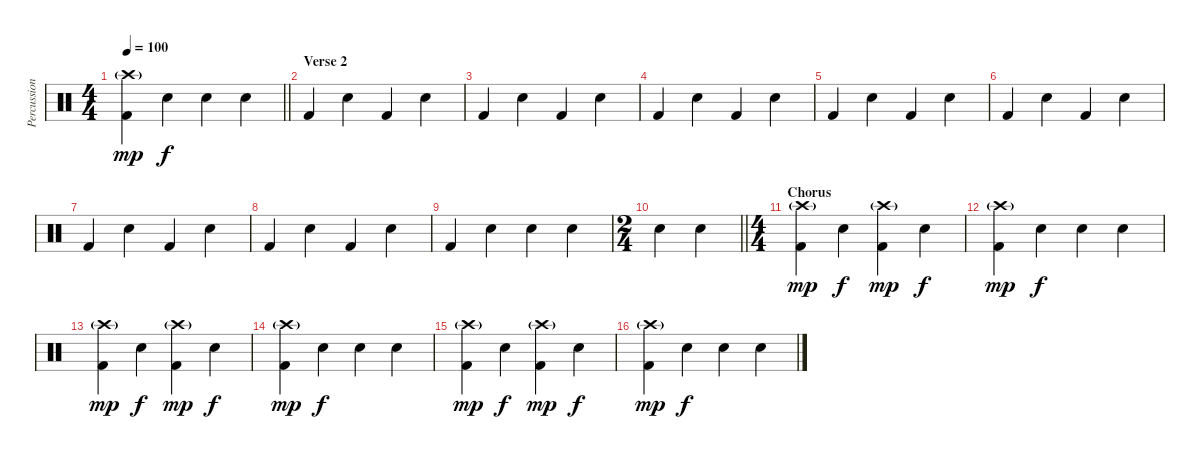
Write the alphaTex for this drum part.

\track ("Percussion" "Percussion") {instrument percussion}
\staff {score}
\articulation defaults
\ts (4 4)
\tempo 100
\clef neutral
\barLineRight lightlight
\ks c
("Crash high (hit)"{g} "Kick (hit) 2").4{dy mp} "Snare (hit) 2".4{dy f} "Snare (hit) 2".4 "Snare (hit) 2".4 |
\section ("" "Verse 2")
"Kick (hit) 2".4 "Snare (hit) 2".4 "Kick (hit) 2".4 "Snare (hit) 2".4 |
"Kick (hit) 2".4 "Snare (hit) 2".4 "Kick (hit) 2".4 "Snare (hit) 2".4 |
"Kick (hit) 2".4 "Snare (hit) 2".4 "Kick (hit) 2".4 "Snare (hit) 2".4 |
"Kick (hit) 2".4 "Snare (hit) 2".4 "Kick (hit) 2".4 "Snare (hit) 2".4 |
"Kick (hit) 2".4 "Snare (hit) 2".4 "Kick (hit) 2".4 "Snare (hit) 2".4 |
"Kick (hit) 2".4 "Snare (hit) 2".4 "Kick (hit) 2".4 "Snare (hit) 2".4 |
"Kick (hit) 2".4 "Snare (hit) 2".4 "Kick (hit) 2".4 "Snare (hit) 2".4 |
"Kick (hit) 2".4 "Snare (hit) 2".4 "Snare (hit) 2".4 "Snare (hit) 2".4 |
\ts (2 4)
\barLineRight lightlight "Snare (hit) 2".4 "Snare (hit) 2".4
|
\ts (4 4)
\section ("" "Chorus")
("Crash high (hit)"{g} "Kick (hit) 2").4{dy mp} "Snare (hit) 2".4{dy f} ("Crash high (hit)"{g} "Kick (hit) 2").4{dy mp} "Snare (hit) 2".4{dy f} |
("Crash high (hit)"{g} "Kick (hit) 2").4{dy mp} "Snare (hit) 2".4{dy f} "Snare (hit) 2".4 "Snare (hit) 2".4 |
("Crash high (hit)"{g} "Kick (hit) 2").4{dy mp} "Snare (hit) 2".4{dy f} ("Crash high (hit)"{g} "Kick (hit) 2").4{dy mp} "Snare (hit) 2".4{dy f} |
("Crash high (hit)"{g} "Kick (hit) 2").4{dy mp} "Snare (hit) 2".4{dy f} "Snare (hit) 2".4 "Snare (hit) 2".4 |
("Crash high (hit)"{g} "Kick (hit) 2").4{dy mp} "Snare (hit) 2".4{dy f} ("Crash high (hit)"{g} "Kick (hit) 2").4{dy mp} "Snare (hit) 2".4{dy f} |
("Crash high (hit)"{g} "Kick (hit) 2").4{dy mp} "Snare (hit) 2".4{dy f} "Snare (hit) 2".4 "Snare (hit) 2".4
